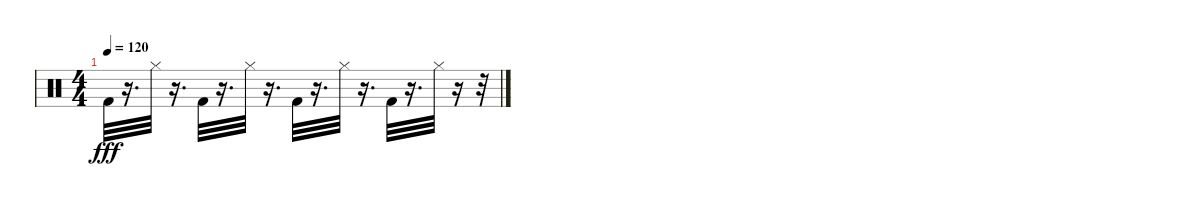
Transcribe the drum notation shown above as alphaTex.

\track "" {instrument percussion}
\staff {score}
\articulation defaults
\ts (4 4)
\tempo 120
\clef neutral
\ks c "Kick (hit) 2".32{dy fff volume 16}
r.16{d} "Hi-Hat (closed)".32 r.16{d} "Kick (hit) 2".32 r.16{d} "Hi-Hat (closed)".32 r.16{d} "Kick (hit) 2".32 r.16{d} "Hi-Hat (closed)".32 r.16{d} "Kick (hit) 2".32 r.16{d} "Hi-Hat (closed)".32 r.16 r.32
